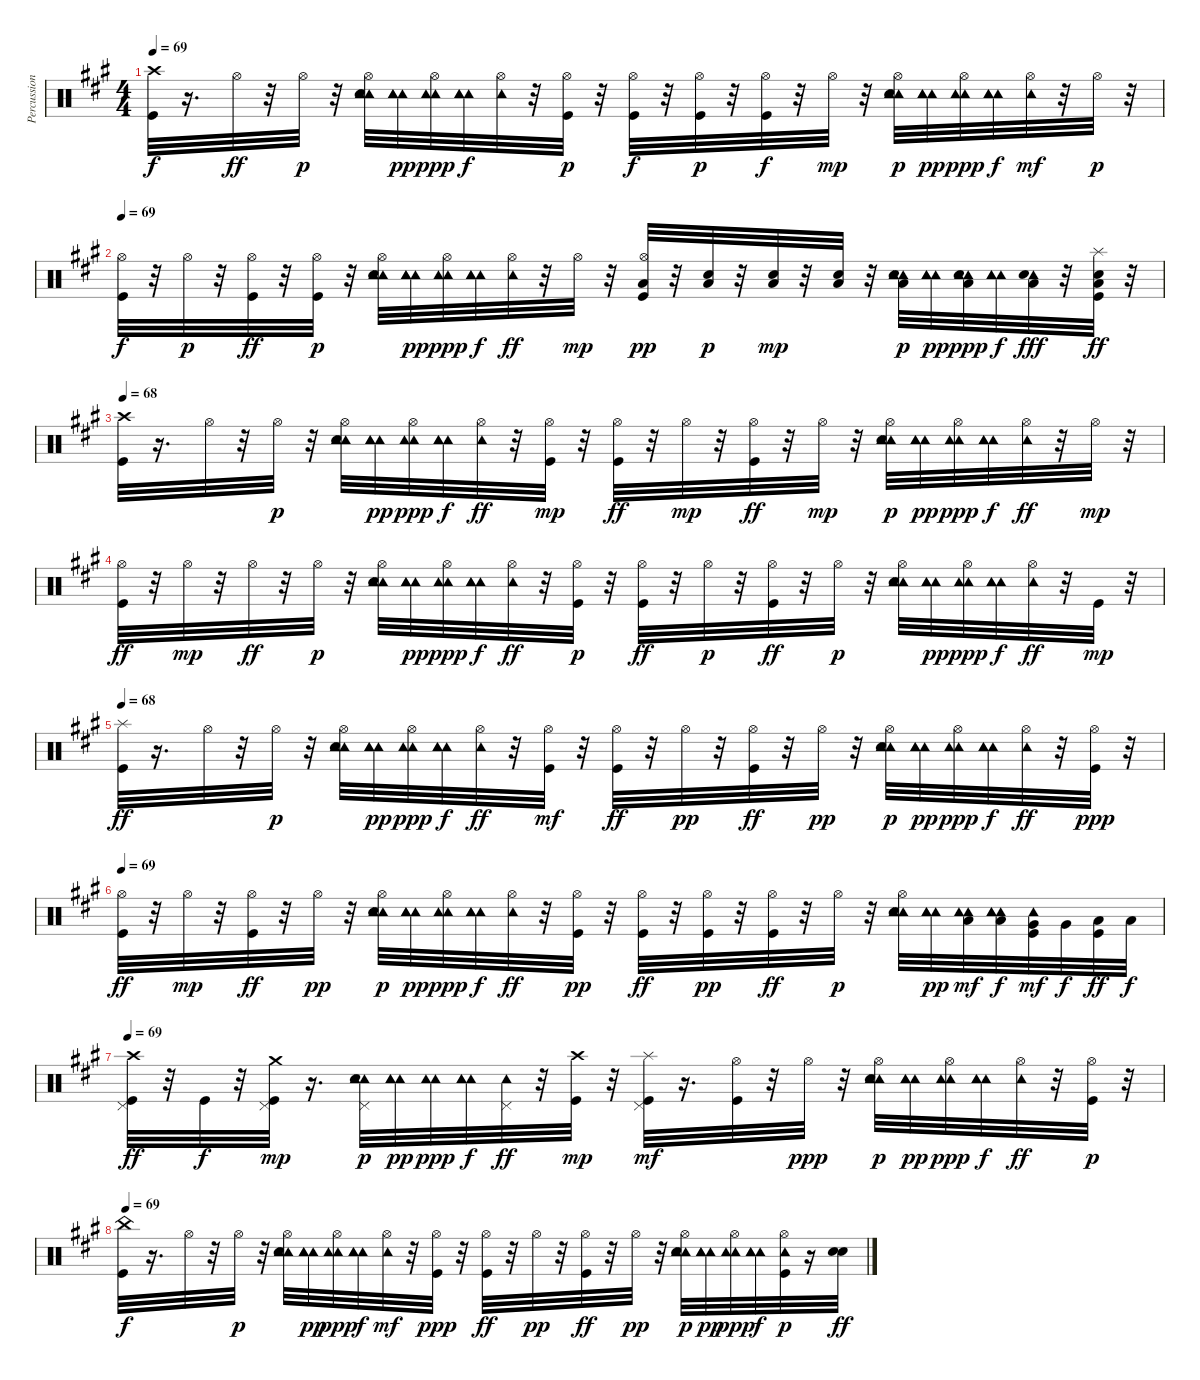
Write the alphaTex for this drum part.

\track ("Percussions" "Percussion") {instrument percussion}
\staff {score}
\articulation defaults
\ts (4 4)
\tempo 69
\clef neutral
\ks f#minor
("Kick (hit)" "Crash high (hit)").32{dy f} r.16{d} "Hi-Hat (open)".32{dy ff} r.32 "Hi-Hat (open)".32{dy p} r.32 ("Tambourine (hit)" "Hi-Hat (open)" "Electric Snare (hit)" "Tambourine (hit)" "Tambourine (hit)").32 ("Tambourine (hit)" "Tambourine (hit)" "Tambourine (hit)").32{dy pp} ("Hi-Hat (open)" "Tambourine (hit)" "Tambourine (hit)").32{dy ppp} ("Tambourine (hit)" "Tambourine (hit)" "Tambourine (hit)").32{dy f} ("Tambourine (hit)" "Hi-Hat (open)").32 r.32 ("Hi-Hat (open)" "Kick (hit)").32{dy p} r.32 ("Hi-Hat (open)" "Kick (hit)").32{dy f} r.32 ("Hi-Hat (open)" "Kick (hit)").32{dy p} r.32 ("Hi-Hat (open)" "Kick (hit)").32{dy f} r.32 "Hi-Hat (open)".32{dy mp} r.32 ("Tambourine (hit)" "Hi-Hat (open)" "Tambourine (hit)" "Electric Snare (hit)" "Tambourine (hit)").32{dy p} ("Tambourine (hit)" "Tambourine (hit)" "Tambourine (hit)").32{dy pp} ("Tambourine (hit)" "Hi-Hat (open)" "Tambourine (hit)").32{dy ppp} ("Tambourine (hit)" "Tambourine (hit)" "Tambourine (hit)").32{dy f} ("Tambourine (hit)" "Hi-Hat (open)").32{dy mf} r.32 "Hi-Hat (open)".32{dy p} r.32 |
\tempo 69
("Kick (hit)" "Hi-Hat (open)").32{dy f} r.32 "Hi-Hat (open)".32{dy p} r.32 ("Kick (hit)" "Hi-Hat (open)").32{dy ff} r.32 ("Kick (hit)" "Hi-Hat (open)").32{dy p} r.32 ("Tambourine (hit)" "Tambourine (hit)" "Electric Snare (hit)" "Hi-Hat (open)" "Tambourine (hit)").32 ("Tambourine (hit)" "Tambourine (hit)" "Tambourine (hit)").32{dy pp} ("Tambourine (hit)" "Hi-Hat (open)" "Tambourine (hit)").32{dy ppp} ("Tambourine (hit)" "Tambourine (hit)" "Tambourine (hit)").32{dy f} ("Tambourine (hit)" "Hi-Hat (open)").32{dy ff} r.32 "Hi-Hat (open)".32{dy mp} r.32 ("Hi-Hat (open)" "Kick (hit)" "Low Floor Tom (hit)").32{dy pp} r.32 ("Electric Snare (hit)" "Low Floor Tom (hit)").32{dy p} r.32 ("Electric Snare (hit)" "Low Floor Tom (hit)").32{dy mp} r.32 ("Electric Snare (hit)" "Low Floor Tom (hit)").32 r.32 ("Tambourine (hit)" "Tambourine (hit)" "Electric Snare (hit)" "Low Floor Tom (hit)" "Tambourine (hit)").32{dy p} ("Tambourine (hit)" "Tambourine (hit)" "Tambourine (hit)").32{dy pp} ("Tambourine (hit)" "Electric Snare (hit)" "Low Floor Tom (hit)" "Tambourine (hit)").32{dy ppp} ("Tambourine (hit)" "Tambourine (hit)" "Tambourine (hit)").32{dy f} ("Tambourine (hit)" "Electric Snare (hit)" "Low Floor Tom (hit)").32{dy fff} r.32 ("Electric Snare (hit)" "Low Floor Tom (hit)" "Splash (hit)" "Kick (hit)").32{dy ff} r.32 |
\tempo 68
("Crash high (hit)" "Kick (hit)").32 r.16{d} "Hi-Hat (open)".32 r.32 "Hi-Hat (open)".32{dy p} r.32 ("Tambourine (hit)" "Tambourine (hit)" "Electric Snare (hit)" "Hi-Hat (open)" "Tambourine (hit)").32 ("Tambourine (hit)" "Tambourine (hit)" "Tambourine (hit)").32{dy pp} ("Tambourine (hit)" "Hi-Hat (open)" "Tambourine (hit)").32{dy ppp} ("Tambourine (hit)" "Tambourine (hit)" "Tambourine (hit)").32{dy f} ("Tambourine (hit)" "Hi-Hat (open)").32{dy ff} r.32 ("Kick (hit)" "Hi-Hat (open)").32{dy mp} r.32 ("Hi-Hat (open)" "Kick (hit)").32{dy ff} r.32 "Hi-Hat (open)".32{dy mp} r.32 ("Hi-Hat (open)" "Kick (hit)").32{dy ff} r.32 "Hi-Hat (open)".32{dy mp} r.32 ("Tambourine (hit)" "Electric Snare (hit)" "Tambourine (hit)" "Hi-Hat (open)" "Tambourine (hit)").32{dy p} ("Tambourine (hit)" "Tambourine (hit)" "Tambourine (hit)").32{dy pp} ("Tambourine (hit)" "Hi-Hat (open)" "Tambourine (hit)").32{dy ppp} ("Tambourine (hit)" "Tambourine (hit)" "Tambourine (hit)").32{dy f} ("Tambourine (hit)" "Hi-Hat (open)").32{dy ff} r.32 "Hi-Hat (open)".32{dy mp} r.32 |
("Hi-Hat (open)" "Kick (hit)").32{dy ff} r.32 "Hi-Hat (open)".32{dy mp} r.32 "Hi-Hat (open)".32{dy ff} r.32 "Hi-Hat (open)".32{dy p} r.32 ("Tambourine (hit)" "Electric Snare (hit)" "Hi-Hat (open)" "Tambourine (hit)" "Tambourine (hit)").32 ("Tambourine (hit)" "Tambourine (hit)" "Tambourine (hit)").32{dy pp} ("Tambourine (hit)" "Hi-Hat (open)" "Tambourine (hit)").32{dy ppp} ("Tambourine (hit)" "Tambourine (hit)" "Tambourine (hit)").32{dy f} ("Tambourine (hit)" "Hi-Hat (open)").32{dy ff} r.32 ("Hi-Hat (open)" "Kick (hit)").32{dy p} r.32 ("Hi-Hat (open)" "Kick (hit)").32{dy ff} r.32 "Hi-Hat (open)".32{dy p} r.32 ("Hi-Hat (open)" "Kick (hit)").32{dy ff} r.32 "Hi-Hat (open)".32{dy p} r.32 ("Tambourine (hit)" "Tambourine (hit)" "Electric Snare (hit)" "Hi-Hat (open)" "Tambourine (hit)").32 ("Tambourine (hit)" "Tambourine (hit)" "Tambourine (hit)").32{dy pp} ("Tambourine (hit)" "Hi-Hat (open)" "Tambourine (hit)").32{dy ppp} ("Tambourine (hit)" "Tambourine (hit)" "Tambourine (hit)").32{dy f} ("Tambourine (hit)" "Hi-Hat (open)").32{dy ff} r.32 "Kick (hit)".32{dy mp} r.32 |
\tempo 68
("Kick (hit)" "Splash (hit)").32{dy ff} r.16{d} "Hi-Hat (open)".32 r.32 "Hi-Hat (open)".32{dy p} r.32 ("Tambourine (hit)" "Tambourine (hit)" "Electric Snare (hit)" "Hi-Hat (open)" "Tambourine (hit)").32 ("Tambourine (hit)" "Tambourine (hit)" "Tambourine (hit)").32{dy pp} ("Tambourine (hit)" "Hi-Hat (open)" "Tambourine (hit)").32{dy ppp} ("Tambourine (hit)" "Tambourine (hit)" "Tambourine (hit)").32{dy f} ("Tambourine (hit)" "Hi-Hat (open)").32{dy ff} r.32 ("Kick (hit)" "Hi-Hat (open)").32{dy mf} r.32 ("Kick (hit)" "Hi-Hat (open)").32{dy ff} r.32 "Hi-Hat (open)".32{dy pp} r.32 ("Kick (hit)" "Hi-Hat (open)").32{dy ff} r.32 "Hi-Hat (open)".32{dy pp} r.32 ("Tambourine (hit)" "Tambourine (hit)" "Electric Snare (hit)" "Hi-Hat (open)" "Tambourine (hit)").32{dy p} ("Tambourine (hit)" "Tambourine (hit)" "Tambourine (hit)").32{dy pp} ("Tambourine (hit)" "Hi-Hat (open)" "Tambourine (hit)").32{dy ppp} ("Tambourine (hit)" "Tambourine (hit)" "Tambourine (hit)").32{dy f} ("Tambourine (hit)" "Hi-Hat (open)").32{dy ff} r.32 ("Kick (hit)" "Hi-Hat (open)").32{dy ppp} r.32 |
\tempo 69
("Kick (hit)" "Hi-Hat (open)").32{dy ff} r.32 "Hi-Hat (open)".32{dy mp} r.32 ("Kick (hit)" "Hi-Hat (open)").32{dy ff} r.32 "Hi-Hat (open)".32{dy pp} r.32 ("Tambourine (hit)" "Tambourine (hit)" "Electric Snare (hit)" "Hi-Hat (open)" "Tambourine (hit)").32{dy p} ("Tambourine (hit)" "Tambourine (hit)" "Tambourine (hit)").32{dy pp} ("Tambourine (hit)" "Hi-Hat (open)" "Tambourine (hit)").32{dy ppp} ("Tambourine (hit)" "Tambourine (hit)" "Tambourine (hit)").32{dy f} ("Tambourine (hit)" "Hi-Hat (open)").32{dy ff} r.32 ("Kick (hit)" "Hi-Hat (open)").32{dy pp} r.32 ("Kick (hit)" "Hi-Hat (open)").32{dy ff} r.32 ("Kick (hit)" "Hi-Hat (open)").32{dy pp} r.32 ("Kick (hit)" "Hi-Hat (open)").32{dy ff} r.32 "Hi-Hat (open)".32{dy p} r.32 ("Tambourine (hit)" "Electric Snare (hit)" "Hi-Hat (open)" "Tambourine (hit)" "Tambourine (hit)").32 ("Tambourine (hit)" "Tambourine (hit)" "Tambourine (hit)").32{dy pp} ("Tambourine (hit)" "Tambourine (hit)" "Low Tom (hit)").32{dy mf} ("Tambourine (hit)" "Tambourine (hit)" "Low Tom (hit)" "Tambourine (hit)").32{dy f} ("Tambourine (hit)" "Kick (hit)" "Very Low Tom (hit)").32{dy mf} "Very Low Tom (hit)".32{dy f} ("Low Floor Tom (hit)" "Kick (hit)").32{dy ff} "Low Floor Tom (hit)".32{dy f} |
\tempo 69
("Crash high (hit)" "Pedal Hi-Hat (hit)" "Kick (hit)").32{dy ff} r.32 "Kick (hit)".32{dy f} r.32 ("Crash medium (hit)" "Pedal Hi-Hat (hit)" "Kick (hit)").32{dy mp} r.16{d} ("Tambourine (hit)" "Tambourine (hit)" "Electric Snare (hit)" "Pedal Hi-Hat (hit)" "Tambourine (hit)").32{dy p} ("Tambourine (hit)" "Tambourine (hit)" "Tambourine (hit)").32{dy pp} ("Tambourine (hit)" "Tambourine (hit)").32{dy ppp} ("Tambourine (hit)" "Tambourine (hit)" "Tambourine (hit)").32{dy f} ("Tambourine (hit)" "Pedal Hi-Hat (hit)").32{dy ff} r.32 ("Crash high (hit)" "Kick (hit)").32{dy mp} r.32 ("Splash (hit)" "Kick (hit)" "Pedal Hi-Hat (hit)").32{dy mf} r.16{d} ("Kick (hit)" "Hi-Hat (open)").32 r.32 "Hi-Hat (open)".32{dy ppp} r.32 ("Tambourine (hit)" "Tambourine (hit)" "Electric Snare (hit)" "Hi-Hat (open)" "Tambourine (hit)").32{dy p} ("Tambourine (hit)" "Tambourine (hit)" "Tambourine (hit)").32{dy pp} ("Tambourine (hit)" "Hi-Hat (open)" "Tambourine (hit)").32{dy ppp} ("Tambourine (hit)" "Tambourine (hit)" "Tambourine (hit)").32{dy f} ("Tambourine (hit)" "Hi-Hat (open)").32{dy ff} r.32 ("Kick (hit)" "Hi-Hat (open)").32{dy p} r.32 |
\tempo 69
("Kick (hit)" "China (hit)").32{dy f} r.16{d} "Hi-Hat (open)".32 r.32 "Hi-Hat (open)".32{dy p} r.32 ("Tambourine (hit)" "Tambourine (hit)" "Electric Snare (hit)" "Hi-Hat (open)" "Tambourine (hit)").32 ("Tambourine (hit)" "Tambourine (hit)" "Tambourine (hit)").32{dy pp} ("Tambourine (hit)" "Hi-Hat (open)" "Tambourine (hit)").32{dy ppp} ("Tambourine (hit)" "Tambourine (hit)" "Tambourine (hit)").32{dy f} ("Tambourine (hit)" "Hi-Hat (open)").32{dy mf} r.32 ("Kick (hit)" "Hi-Hat (open)").32{dy ppp} r.32 ("Kick (hit)" "Hi-Hat (open)").32{dy ff} r.32 "Hi-Hat (open)".32{dy pp} r.32 ("Kick (hit)" "Hi-Hat (open)").32{dy ff} r.32 "Hi-Hat (open)".32{dy pp} r.32 ("Tambourine (hit)" "Tambourine (hit)" "Electric Snare (hit)" "Hi-Hat (open)" "Tambourine (hit)").32{dy p} ("Tambourine (hit)" "Tambourine (hit)" "Tambourine (hit)").32{dy pp} ("Tambourine (hit)" "Hi-Hat (open)" "Tambourine (hit)").32{dy ppp} ("Tambourine (hit)" "Tambourine (hit)" "Tambourine (hit)").32{dy f} ("Tambourine (hit)" "Hi-Hat (open)" "Kick (hit)").32{dy p} r.16 ("Electric Snare (hit)" "Electric Snare (hit)").32{dy ff}
